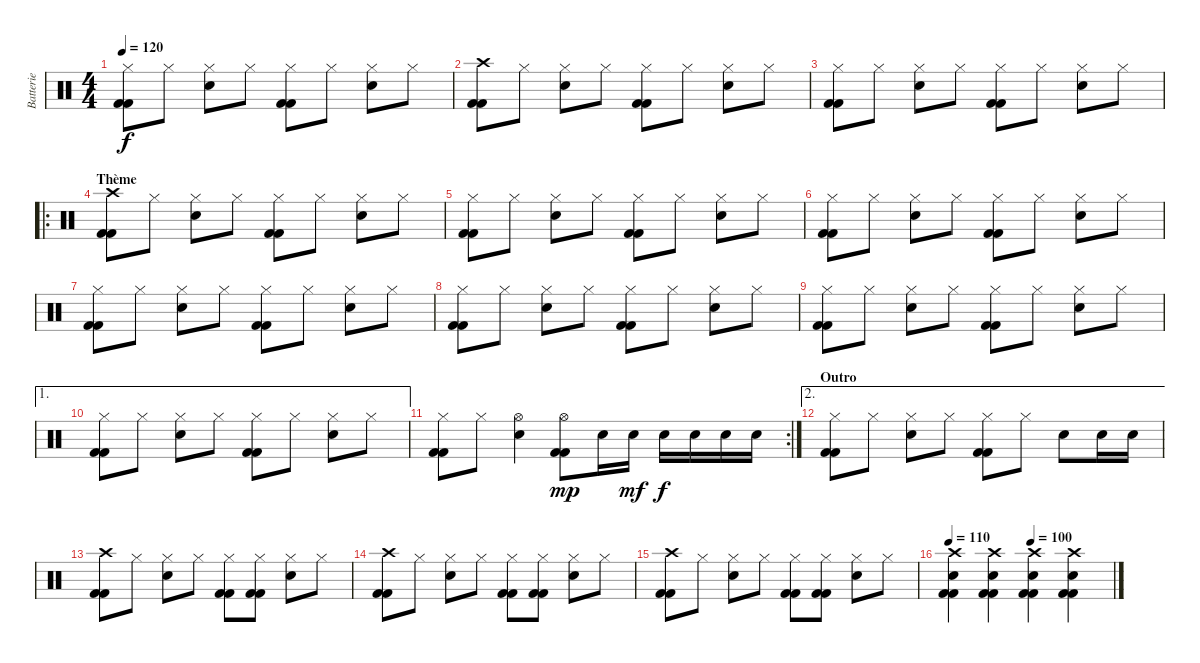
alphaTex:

\track ("Batterie" "Batterie") {instrument percussion}
\staff {score}
\articulation defaults
\ts (4 4)
\tempo 120
\clef neutral
\ks c
("Hi-Hat (closed)" "Kick (hit) 2" "Kick (hit) 2").8{dy f} "Hi-Hat (closed)".8 ("Hi-Hat (closed)" "Snare (hit) 2").8 "Hi-Hat (closed)".8 ("Hi-Hat (closed)" "Kick (hit) 2" "Kick (hit) 2").8 "Hi-Hat (closed)".8 ("Hi-Hat (closed)" "Snare (hit) 2").8 "Hi-Hat (closed)".8 |
("Crash high (hit)" "Kick (hit) 2" "Kick (hit) 2").8 "Hi-Hat (closed)".8 ("Hi-Hat (closed)" "Snare (hit) 2").8 "Hi-Hat (closed)".8 ("Hi-Hat (closed)" "Kick (hit) 2" "Kick (hit) 2").8 "Hi-Hat (closed)".8 ("Hi-Hat (closed)" "Snare (hit) 2").8 "Hi-Hat (closed)".8 |
("Hi-Hat (closed)" "Kick (hit) 2" "Kick (hit) 2").8 "Hi-Hat (closed)".8 ("Hi-Hat (closed)" "Snare (hit) 2").8 "Hi-Hat (closed)".8 ("Hi-Hat (closed)" "Kick (hit) 2" "Kick (hit) 2").8 "Hi-Hat (closed)".8 ("Hi-Hat (closed)" "Snare (hit) 2").8 "Hi-Hat (closed)".8 |
\ro
\section ("" "Thème")
("Crash high (hit)" "Kick (hit) 2" "Kick (hit) 2").8 "Hi-Hat (closed)".8 ("Hi-Hat (closed)" "Snare (hit) 2").8 "Hi-Hat (closed)".8 ("Hi-Hat (closed)" "Kick (hit) 2" "Kick (hit) 2").8 "Hi-Hat (closed)".8 ("Hi-Hat (closed)" "Snare (hit) 2").8 "Hi-Hat (closed)".8 |
("Hi-Hat (closed)" "Kick (hit) 2" "Kick (hit) 2").8 "Hi-Hat (closed)".8 ("Hi-Hat (closed)" "Snare (hit) 2").8 "Hi-Hat (closed)".8 ("Hi-Hat (closed)" "Kick (hit) 2" "Kick (hit) 2").8 "Hi-Hat (closed)".8 ("Hi-Hat (closed)" "Snare (hit) 2").8 "Hi-Hat (closed)".8 |
("Hi-Hat (closed)" "Kick (hit) 2" "Kick (hit) 2").8 "Hi-Hat (closed)".8 ("Hi-Hat (closed)" "Snare (hit) 2").8 "Hi-Hat (closed)".8 ("Hi-Hat (closed)" "Kick (hit) 2" "Kick (hit) 2").8 "Hi-Hat (closed)".8 ("Hi-Hat (closed)" "Snare (hit) 2").8 "Hi-Hat (closed)".8 |
("Hi-Hat (closed)" "Kick (hit) 2" "Kick (hit) 2").8 "Hi-Hat (closed)".8 ("Hi-Hat (closed)" "Snare (hit) 2").8 "Hi-Hat (closed)".8 ("Hi-Hat (closed)" "Kick (hit) 2" "Kick (hit) 2").8 "Hi-Hat (closed)".8 ("Hi-Hat (closed)" "Snare (hit) 2").8 "Hi-Hat (closed)".8 |
("Hi-Hat (closed)" "Kick (hit) 2" "Kick (hit) 2").8 "Hi-Hat (closed)".8 ("Hi-Hat (closed)" "Snare (hit) 2").8 "Hi-Hat (closed)".8 ("Hi-Hat (closed)" "Kick (hit) 2" "Kick (hit) 2").8 "Hi-Hat (closed)".8 ("Hi-Hat (closed)" "Snare (hit) 2").8 "Hi-Hat (closed)".8 |
("Hi-Hat (closed)" "Kick (hit) 2" "Kick (hit) 2").8 "Hi-Hat (closed)".8 ("Hi-Hat (closed)" "Snare (hit) 2").8 "Hi-Hat (closed)".8 ("Hi-Hat (closed)" "Kick (hit) 2" "Kick (hit) 2").8 "Hi-Hat (closed)".8 ("Hi-Hat (closed)" "Snare (hit) 2").8 "Hi-Hat (closed)".8 |
\ae 1
("Hi-Hat (closed)" "Kick (hit) 2" "Kick (hit) 2").8 "Hi-Hat (closed)".8 ("Hi-Hat (closed)" "Snare (hit) 2").8 "Hi-Hat (closed)".8 ("Hi-Hat (closed)" "Kick (hit) 2" "Kick (hit) 2").8 "Hi-Hat (closed)".8 ("Hi-Hat (closed)" "Snare (hit) 2").8 "Hi-Hat (closed)".8 |
\rc 2
("Hi-Hat (closed)" "Kick (hit) 2" "Kick (hit) 2").8 "Hi-Hat (closed)".8 ("Hi-Hat (open)" "Snare (hit) 2").4 ("Hi-Hat (open)" "Kick (hit) 2" "Kick (hit) 2").8{dy mp} "Snare (hit) 2".16 "Snare (hit) 2".16{dy mf} "Snare (hit) 2".16{dy f} "Snare (hit) 2".16 "Snare (hit) 2".16 "Snare (hit) 2".16 |
\ae 2
\section ("" "Outro")
("Hi-Hat (closed)" "Kick (hit) 2" "Kick (hit) 2").8 "Hi-Hat (closed)".8 ("Hi-Hat (closed)" "Snare (hit) 2").8 "Hi-Hat (closed)".8 ("Hi-Hat (closed)" "Kick (hit) 2" "Kick (hit) 2").8 "Hi-Hat (closed)".8 "Snare (hit) 2".8 "Snare (hit) 2".16 "Snare (hit) 2".16 |
("Crash high (hit)" "Kick (hit) 2" "Kick (hit) 2").8 "Hi-Hat (closed)".8 ("Hi-Hat (closed)" "Snare (hit) 2").8 "Hi-Hat (closed)".8 ("Hi-Hat (closed)" "Kick (hit) 2" "Kick (hit) 2").8 ("Hi-Hat (closed)" "Kick (hit) 2" "Kick (hit) 2").8 ("Hi-Hat (closed)" "Snare (hit) 2").8 "Hi-Hat (closed)".8 |
("Crash high (hit)" "Kick (hit) 2" "Kick (hit) 2").8 "Hi-Hat (closed)".8 ("Hi-Hat (closed)" "Snare (hit) 2").8 "Hi-Hat (closed)".8 ("Hi-Hat (closed)" "Kick (hit) 2" "Kick (hit) 2").8 ("Hi-Hat (closed)" "Kick (hit) 2" "Kick (hit) 2").8 ("Hi-Hat (closed)" "Snare (hit) 2").8 "Hi-Hat (closed)".8 |
("Crash high (hit)" "Kick (hit) 2" "Kick (hit) 2").8 "Hi-Hat (closed)".8 ("Hi-Hat (closed)" "Snare (hit) 2").8 "Hi-Hat (closed)".8 ("Hi-Hat (closed)" "Kick (hit) 2" "Kick (hit) 2").8 ("Hi-Hat (closed)" "Kick (hit) 2" "Kick (hit) 2").8 ("Hi-Hat (closed)" "Snare (hit) 2").8 "Hi-Hat (closed)".8 |
\tempo 110
\tempo (100 0.5)
("Crash high (hit)" "Snare (hit) 2" "Kick (hit) 2" "Kick (hit) 2").4 ("Crash high (hit)" "Snare (hit) 2" "Kick (hit) 2" "Kick (hit) 2").4 ("Crash high (hit)" "Snare (hit) 2" "Kick (hit) 2" "Kick (hit) 2").4 ("Crash high (hit)" "Snare (hit) 2" "Kick (hit) 2" "Kick (hit) 2").4
